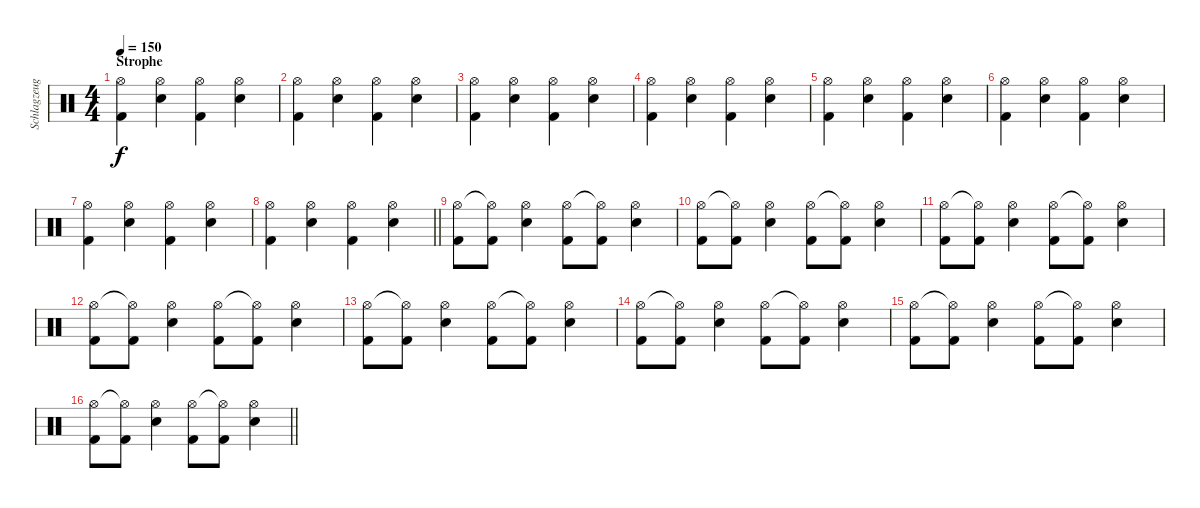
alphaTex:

\track ("Schlagzeug" "Schlagzeug") {instrument percussion}
\staff {score}
\articulation defaults
\ts (4 4)
\section ("" "Strophe")
\tempo 150
\clef neutral
\ks c
("Hi-Hat (open)" "Kick (hit) 2").4{dy f} ("Hi-Hat (open)" "Snare (hit) 2").4 ("Hi-Hat (open)" "Kick (hit) 2").4 ("Hi-Hat (open)" "Snare (hit) 2").4 |
("Hi-Hat (open)" "Kick (hit) 2").4 ("Hi-Hat (open)" "Snare (hit) 2").4 ("Hi-Hat (open)" "Kick (hit) 2").4 ("Hi-Hat (open)" "Snare (hit) 2").4 |
("Hi-Hat (open)" "Kick (hit) 2").4 ("Hi-Hat (open)" "Snare (hit) 2").4 ("Hi-Hat (open)" "Kick (hit) 2").4 ("Hi-Hat (open)" "Snare (hit) 2").4 |
("Hi-Hat (open)" "Kick (hit) 2").4 ("Hi-Hat (open)" "Snare (hit) 2").4 ("Hi-Hat (open)" "Kick (hit) 2").4 ("Hi-Hat (open)" "Snare (hit) 2").4 |
("Hi-Hat (open)" "Kick (hit) 2").4 ("Hi-Hat (open)" "Snare (hit) 2").4 ("Hi-Hat (open)" "Kick (hit) 2").4 ("Hi-Hat (open)" "Snare (hit) 2").4 |
("Hi-Hat (open)" "Kick (hit) 2").4 ("Hi-Hat (open)" "Snare (hit) 2").4 ("Hi-Hat (open)" "Kick (hit) 2").4 ("Hi-Hat (open)" "Snare (hit) 2").4 |
("Hi-Hat (open)" "Kick (hit) 2").4 ("Hi-Hat (open)" "Snare (hit) 2").4 ("Hi-Hat (open)" "Kick (hit) 2").4 ("Hi-Hat (open)" "Snare (hit) 2").4 |
\barLineRight lightlight
("Hi-Hat (open)" "Kick (hit) 2").4 ("Hi-Hat (open)" "Snare (hit) 2").4 ("Hi-Hat (open)" "Kick (hit) 2").4 ("Hi-Hat (open)" "Snare (hit) 2").4 |
("Hi-Hat (open)" "Kick (hit) 2").8 ("Hi-Hat (open)"{t} "Kick (hit) 2").8 ("Hi-Hat (open)" "Snare (hit) 2").4 ("Hi-Hat (open)" "Kick (hit) 2").8 ("Hi-Hat (open)"{t} "Kick (hit) 2").8 ("Hi-Hat (open)" "Snare (hit) 2").4 |
("Hi-Hat (open)" "Kick (hit) 2").8 ("Hi-Hat (open)"{t} "Kick (hit) 2").8 ("Hi-Hat (open)" "Snare (hit) 2").4 ("Hi-Hat (open)" "Kick (hit) 2").8 ("Hi-Hat (open)"{t} "Kick (hit) 2").8 ("Hi-Hat (open)" "Snare (hit) 2").4 |
("Hi-Hat (open)" "Kick (hit) 2").8 ("Hi-Hat (open)"{t} "Kick (hit) 2").8 ("Hi-Hat (open)" "Snare (hit) 2").4 ("Hi-Hat (open)" "Kick (hit) 2").8 ("Hi-Hat (open)"{t} "Kick (hit) 2").8 ("Hi-Hat (open)" "Snare (hit) 2").4 |
("Hi-Hat (open)" "Kick (hit) 2").8 ("Hi-Hat (open)"{t} "Kick (hit) 2").8 ("Hi-Hat (open)" "Snare (hit) 2").4 ("Hi-Hat (open)" "Kick (hit) 2").8 ("Hi-Hat (open)"{t} "Kick (hit) 2").8 ("Hi-Hat (open)" "Snare (hit) 2").4 |
("Hi-Hat (open)" "Kick (hit) 2").8 ("Hi-Hat (open)"{t} "Kick (hit) 2").8 ("Hi-Hat (open)" "Snare (hit) 2").4 ("Hi-Hat (open)" "Kick (hit) 2").8 ("Hi-Hat (open)"{t} "Kick (hit) 2").8 ("Hi-Hat (open)" "Snare (hit) 2").4 |
("Hi-Hat (open)" "Kick (hit) 2").8 ("Hi-Hat (open)"{t} "Kick (hit) 2").8 ("Hi-Hat (open)" "Snare (hit) 2").4 ("Hi-Hat (open)" "Kick (hit) 2").8 ("Hi-Hat (open)"{t} "Kick (hit) 2").8 ("Hi-Hat (open)" "Snare (hit) 2").4 |
("Hi-Hat (open)" "Kick (hit) 2").8 ("Hi-Hat (open)"{t} "Kick (hit) 2").8 ("Hi-Hat (open)" "Snare (hit) 2").4 ("Hi-Hat (open)" "Kick (hit) 2").8 ("Hi-Hat (open)"{t} "Kick (hit) 2").8 ("Hi-Hat (open)" "Snare (hit) 2").4 |
\barLineRight lightlight
("Hi-Hat (open)" "Kick (hit) 2").8 ("Hi-Hat (open)"{t} "Kick (hit) 2").8 ("Hi-Hat (open)" "Snare (hit) 2").4 ("Hi-Hat (open)" "Kick (hit) 2").8 ("Hi-Hat (open)"{t} "Kick (hit) 2").8 ("Hi-Hat (open)" "Snare (hit) 2").4
